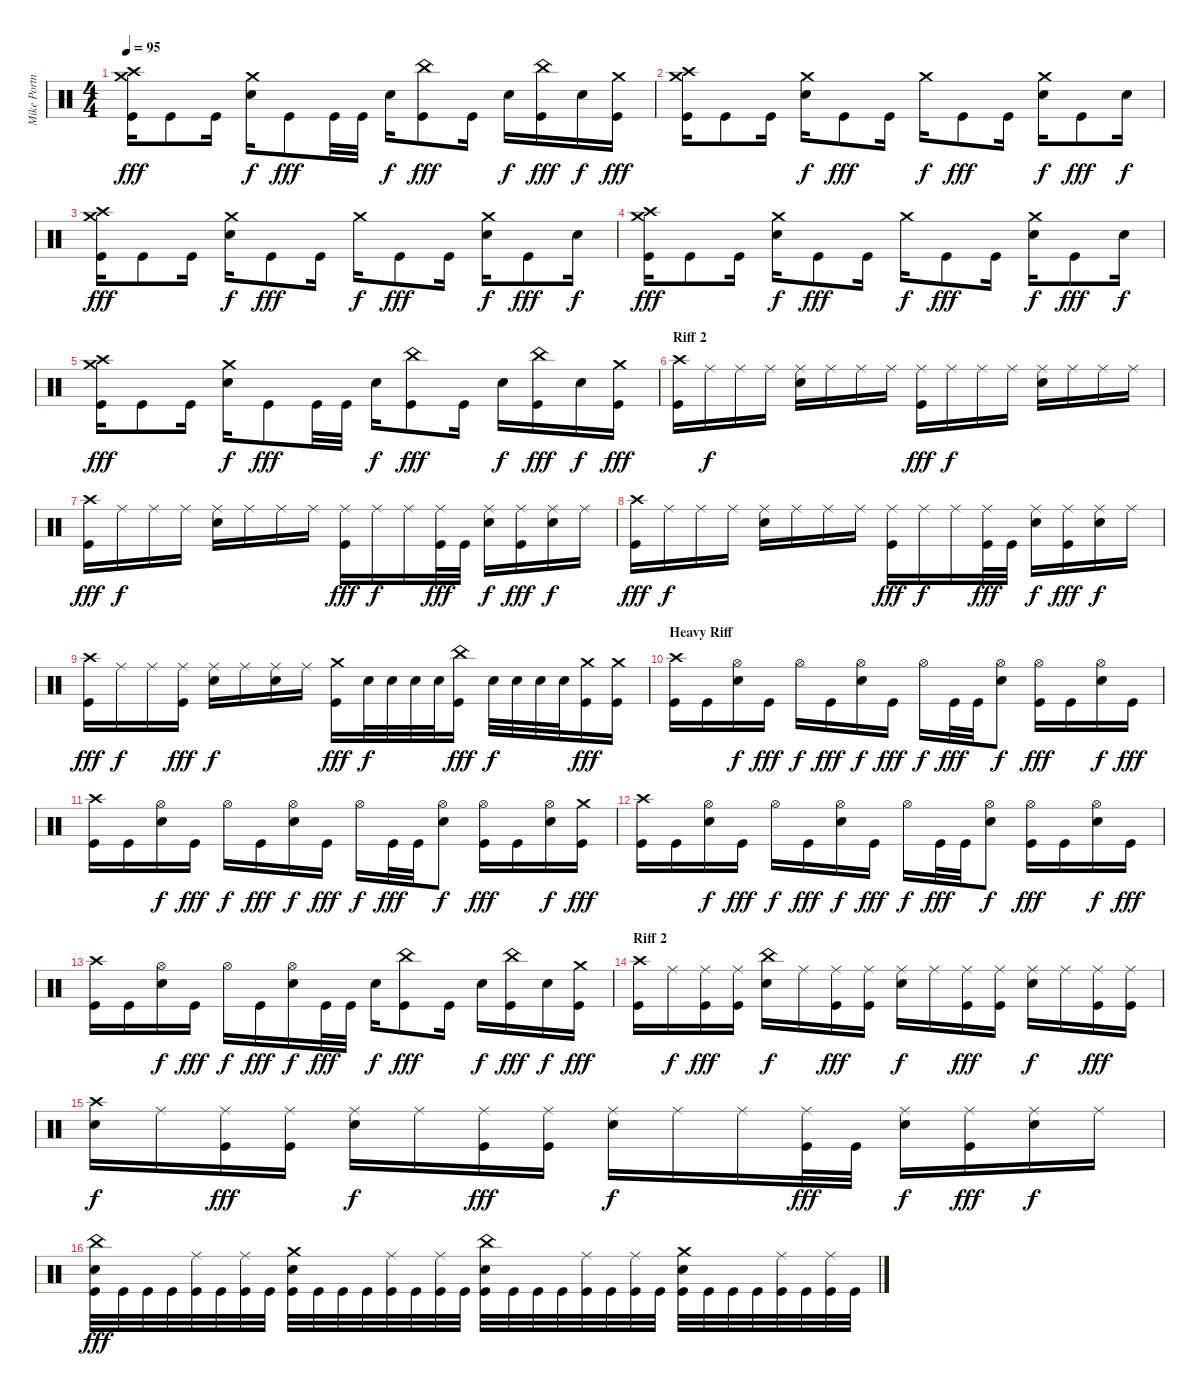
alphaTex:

\track ("Mike Portnoy" "Mike Portn") {instrument percussion}
\staff {score}
\articulation defaults
\ts (4 4)
\tempo 95
\clef neutral
\ks c
("Crash high (hit)" "Crash medium (hit)" "Kick (hit)").16{dy fff} "Kick (hit)".8 "Kick (hit)".16 ("Crash medium (hit)" "Electric Snare (hit)").16{dy f} "Kick (hit)".8{dy fff} "Kick (hit)".32 "Kick (hit)".32 "Electric Snare (hit)".16{dy f} ("China (hit)" "Kick (hit)").8{dy fff} "Kick (hit)".16 "Electric Snare (hit)".16{dy f} ("China (hit)" "Kick (hit)").16{dy fff} "Electric Snare (hit)".16{dy f} ("Crash medium (hit)" "Kick (hit)").16{dy fff} |
("Crash high (hit)" "Crash medium (hit)" "Kick (hit)").16 "Kick (hit)".8 "Kick (hit)".16 ("Crash medium (hit)" "Electric Snare (hit)").16{dy f} "Kick (hit)".8{dy fff} "Kick (hit)".16 "Crash medium (hit)".16{dy f} "Kick (hit)".8{dy fff} "Kick (hit)".16 ("Crash medium (hit)" "Electric Snare (hit)").16{dy f} "Kick (hit)".8{dy fff} "Electric Snare (hit)".16{dy f} |
("Crash high (hit)" "Crash medium (hit)" "Kick (hit)").16{dy fff} "Kick (hit)".8 "Kick (hit)".16 ("Crash medium (hit)" "Electric Snare (hit)").16{dy f} "Kick (hit)".8{dy fff} "Kick (hit)".16 "Crash medium (hit)".16{dy f} "Kick (hit)".8{dy fff} "Kick (hit)".16 ("Crash medium (hit)" "Electric Snare (hit)").16{dy f} "Kick (hit)".8{dy fff} "Electric Snare (hit)".16{dy f} |
("Crash high (hit)" "Crash medium (hit)" "Kick (hit)").16{dy fff} "Kick (hit)".8 "Kick (hit)".16 ("Crash medium (hit)" "Electric Snare (hit)").16{dy f} "Kick (hit)".8{dy fff} "Kick (hit)".16 "Crash medium (hit)".16{dy f} "Kick (hit)".8{dy fff} "Kick (hit)".16 ("Crash medium (hit)" "Electric Snare (hit)").16{dy f} "Kick (hit)".8{dy fff} "Electric Snare (hit)".16{dy f} |
("Crash high (hit)" "Crash medium (hit)" "Kick (hit)").16{dy fff} "Kick (hit)".8 "Kick (hit)".16 ("Crash medium (hit)" "Electric Snare (hit)").16{dy f} "Kick (hit)".8{dy fff} "Kick (hit)".32 "Kick (hit)".32 "Electric Snare (hit)".16{dy f} ("China (hit)" "Kick (hit)").8{dy fff} "Kick (hit)".16 "Electric Snare (hit)".16{dy f} ("China (hit)" "Kick (hit)").16{dy fff} "Electric Snare (hit)".16{dy f} ("Crash medium (hit)" "Kick (hit)").16{dy fff} |
\section ("" "Riff 2")
("Crash high (hit)" "Kick (hit)").16 "Ride (middle)".16{dy f} "Ride (middle)".16 "Ride (middle)".16 ("Ride (middle)" "Electric Snare (hit)").16 "Ride (middle)".16 "Ride (middle)".16 "Ride (middle)".16 ("Ride (middle)" "Kick (hit)").16{dy fff} "Ride (middle)".16{dy f} "Ride (middle)".16 "Ride (middle)".16 ("Ride (middle)" "Electric Snare (hit)").16 "Ride (middle)".16 "Ride (middle)".16 "Ride (middle)".16 |
("Crash high (hit)" "Kick (hit)").16{dy fff} "Ride (middle)".16{dy f} "Ride (middle)".16 "Ride (middle)".16 ("Ride (middle)" "Electric Snare (hit)").16 "Ride (middle)".16 "Ride (middle)".16 "Ride (middle)".16 ("Ride (middle)" "Kick (hit)").16{dy fff} "Ride (middle)".16{dy f} "Ride (middle)".16 ("Ride (middle)" "Kick (hit)").32{dy fff} "Kick (hit)".32 ("Ride (middle)" "Electric Snare (hit)").16{dy f} ("Ride (middle)" "Kick (hit)").16{dy fff} ("Ride (middle)" "Electric Snare (hit)").16{dy f} "Ride (middle)".16 |
("Crash high (hit)" "Kick (hit)").16{dy fff} "Ride (middle)".16{dy f} "Ride (middle)".16 "Ride (middle)".16 ("Ride (middle)" "Electric Snare (hit)").16 "Ride (middle)".16 "Ride (middle)".16 "Ride (middle)".16 ("Ride (middle)" "Kick (hit)").16{dy fff} "Ride (middle)".16{dy f} "Ride (middle)".16 ("Ride (middle)" "Kick (hit)").32{dy fff} "Kick (hit)".32 ("Ride (middle)" "Electric Snare (hit)").16{dy f} ("Ride (middle)" "Kick (hit)").16{dy fff} ("Ride (middle)" "Electric Snare (hit)").16{dy f} "Ride (middle)".16 |
("Crash high (hit)" "Kick (hit)").16{dy fff} "Ride (middle)".16{dy f} "Ride (middle)".16 ("Ride (middle)" "Kick (hit)").16{dy fff} ("Ride (middle)" "Electric Snare (hit)").16{dy f} "Ride (middle)".16 ("Ride (middle)" "Electric Snare (hit)").16 "Ride (middle)".16 ("Crash medium (hit)" "Kick (hit)").16{dy fff} "Electric Snare (hit)".32{dy f} "Electric Snare (hit)".32 "Electric Snare (hit)".32 "Electric Snare (hit)".32 ("China (hit)" "Kick (hit)").16{dy fff} "Electric Snare (hit)".32{dy f} "Electric Snare (hit)".32 "Electric Snare (hit)".32 "Electric Snare (hit)".32 ("Crash medium (hit)" "Kick (hit)").16{dy fff} ("Crash medium (hit)" "Kick (hit)").16 |
\section ("" "Heavy Riff")
("Crash high (hit)" "Kick (hit)").16 "Kick (hit)".16 ("Hi-Hat (open)" "Electric Snare (hit)").16{dy f} "Kick (hit)".16{dy fff} "Hi-Hat (open)".16{dy f} "Kick (hit)".16{dy fff} ("Hi-Hat (open)" "Electric Snare (hit)").16{dy f} "Kick (hit)".16{dy fff} "Hi-Hat (open)".16{dy f} "Kick (hit)".32{dy fff} "Kick (hit)".32 ("Hi-Hat (open)" "Electric Snare (hit)").8{dy f} ("Hi-Hat (open)" "Kick (hit)").16{dy fff} "Kick (hit)".16 ("Hi-Hat (open)" "Electric Snare (hit)").16{dy f} "Kick (hit)".16{dy fff} |
("Crash high (hit)" "Kick (hit)").16 "Kick (hit)".16 ("Hi-Hat (open)" "Electric Snare (hit)").16{dy f} "Kick (hit)".16{dy fff} "Hi-Hat (open)".16{dy f} "Kick (hit)".16{dy fff} ("Hi-Hat (open)" "Electric Snare (hit)").16{dy f} "Kick (hit)".16{dy fff} "Hi-Hat (open)".16{dy f} "Kick (hit)".32{dy fff} "Kick (hit)".32 ("Hi-Hat (open)" "Electric Snare (hit)").8{dy f} ("Hi-Hat (open)" "Kick (hit)").16{dy fff} "Kick (hit)".16 ("Hi-Hat (open)" "Electric Snare (hit)").16{dy f} ("Crash medium (hit)" "Kick (hit)").16{dy fff} |
("Crash high (hit)" "Kick (hit)").16 "Kick (hit)".16 ("Hi-Hat (open)" "Electric Snare (hit)").16{dy f} "Kick (hit)".16{dy fff} "Hi-Hat (open)".16{dy f} "Kick (hit)".16{dy fff} ("Hi-Hat (open)" "Electric Snare (hit)").16{dy f} "Kick (hit)".16{dy fff} "Hi-Hat (open)".16{dy f} "Kick (hit)".32{dy fff} "Kick (hit)".32 ("Hi-Hat (open)" "Electric Snare (hit)").8{dy f} ("Hi-Hat (open)" "Kick (hit)").16{dy fff} "Kick (hit)".16 ("Hi-Hat (open)" "Electric Snare (hit)").16{dy f} "Kick (hit)".16{dy fff} |
("Crash high (hit)" "Kick (hit)").16 "Kick (hit)".16 ("Hi-Hat (open)" "Electric Snare (hit)").16{dy f} "Kick (hit)".16{dy fff} "Hi-Hat (open)".16{dy f} "Kick (hit)".16{dy fff} ("Hi-Hat (open)" "Electric Snare (hit)").16{dy f} "Kick (hit)".32{dy fff} "Kick (hit)".32 "Electric Snare (hit)".16{dy f} ("China (hit)" "Kick (hit)").8{dy fff} "Kick (hit)".16 "Electric Snare (hit)".16{dy f} ("China (hit)" "Kick (hit)").16{dy fff} "Electric Snare (hit)".16{dy f} ("Crash medium (hit)" "Kick (hit)").16{dy fff} |
\section ("" "Riff 2")
("Crash high (hit)" "Kick (hit)").16 "Ride (middle)".16{dy f} ("Ride (middle)" "Kick (hit)").16{dy fff} ("Ride (middle)" "Kick (hit)").16 ("China (hit)" "Electric Snare (hit)").16{dy f} "Ride (middle)".16 ("Ride (middle)" "Kick (hit)").16{dy fff} ("Ride (middle)" "Kick (hit)").16 ("Ride (middle)" "Electric Snare (hit)").16{dy f} "Ride (middle)".16 ("Ride (middle)" "Kick (hit)").16{dy fff} ("Ride (middle)" "Kick (hit)").16 ("Ride (middle)" "Electric Snare (hit)").16{dy f} "Ride (middle)".16 ("Ride (middle)" "Kick (hit)").16{dy fff} ("Ride (middle)" "Kick (hit)").16 |
("Crash high (hit)" "Electric Snare (hit)").16{dy f} "Ride (middle)".16 ("Ride (middle)" "Kick (hit)").16{dy fff} ("Ride (middle)" "Kick (hit)").16 ("Ride (middle)" "Electric Snare (hit)").16{dy f} "Ride (middle)".16 ("Ride (middle)" "Kick (hit)").16{dy fff} ("Ride (middle)" "Kick (hit)").16 ("Ride (middle)" "Electric Snare (hit)").16{dy f} "Ride (middle)".16 "Ride (middle)".16 ("Ride (middle)" "Kick (hit)").32{dy fff} "Kick (hit)".32 ("Ride (middle)" "Electric Snare (hit)").16{dy f} ("Ride (middle)" "Kick (hit)").16{dy fff} ("Ride (middle)" "Electric Snare (hit)").16{dy f} "Ride (middle)".16 |
("China (hit)" "Electric Snare (hit)" "Kick (hit)").32{dy fff} "Kick (hit)".32 "Kick (hit)".32 "Kick (hit)".32 ("Ride (middle)" "Kick (hit)").32 "Kick (hit)".32 ("Ride (middle)" "Kick (hit)").32 "Kick (hit)".32 ("Crash medium (hit)" "Electric Snare (hit)" "Kick (hit)").32 "Kick (hit)".32 "Kick (hit)".32 "Kick (hit)".32 ("Ride (middle)" "Kick (hit)").32 "Kick (hit)".32 ("Ride (middle)" "Kick (hit)").32 "Kick (hit)".32 ("China (hit)" "Electric Snare (hit)" "Kick (hit)").32 "Kick (hit)".32 "Kick (hit)".32 "Kick (hit)".32 ("Ride (middle)" "Kick (hit)").32 "Kick (hit)".32 ("Ride (middle)" "Kick (hit)").32 "Kick (hit)".32 ("Crash medium (hit)" "Electric Snare (hit)" "Kick (hit)").32 "Kick (hit)".32 "Kick (hit)".32 "Kick (hit)".32 ("Ride (middle)" "Kick (hit)").32 "Kick (hit)".32 ("Ride (middle)" "Kick (hit)").32 "Kick (hit)".32
